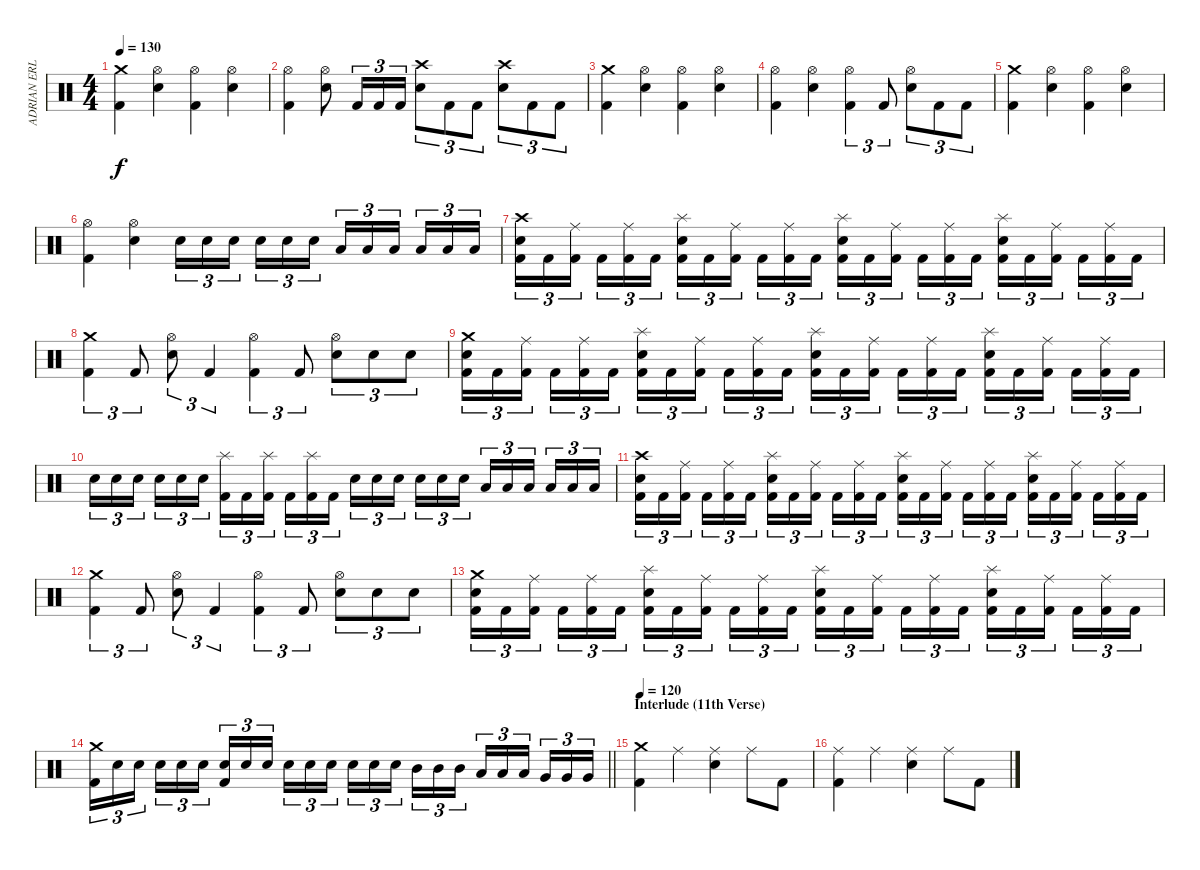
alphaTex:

\track ("ADRIAN ERLANDSSON" "ADRIAN ERL") {instrument percussion}
\staff {score}
\articulation defaults
\ts (4 4)
\tempo 130
\clef neutral
\ks c
("Kick (hit) 2" "Crash medium (hit)").4{dy f} ("Electric Snare (hit)" "Hi-Hat (open)").4 ("Kick (hit) 2" "Hi-Hat (open)").4 ("Electric Snare (hit)" "Hi-Hat (open)").4 |
("Kick (hit) 2" "Hi-Hat (open)").4 ("Electric Snare (hit)" "Hi-Hat (open)").8 "Kick (hit) 2".16{tu (3 2)} "Kick (hit) 2".16{tu (3 2)} "Kick (hit) 2".16{tu (3 2)} ("Electric Snare (hit)" "Crash high (hit)").8{tu (3 2)} "Kick (hit) 2".8{tu (3 2)} "Kick (hit) 2".8{tu (3 2)} ("Electric Snare (hit)" "Crash high (hit)").8{tu (3 2)} "Kick (hit) 2".8{tu (3 2)} "Kick (hit) 2".8{tu (3 2)} |
("Kick (hit) 2" "Crash medium (hit)").4 ("Electric Snare (hit)" "Hi-Hat (open)").4 ("Kick (hit) 2" "Hi-Hat (open)").4 ("Electric Snare (hit)" "Hi-Hat (open)").4 |
("Kick (hit) 2" "Hi-Hat (open)").4 ("Electric Snare (hit)" "Hi-Hat (open)").4 ("Kick (hit) 2" "Hi-Hat (open)").4{tu (3 2)} "Kick (hit) 2".8{tu (3 2)} ("Electric Snare (hit)" "Hi-Hat (open)").8{tu (3 2)} "Kick (hit) 2".8{tu (3 2)} "Kick (hit) 2".8{tu (3 2)} |
("Kick (hit) 2" "Crash medium (hit)").4 ("Electric Snare (hit)" "Hi-Hat (open)").4 ("Kick (hit) 2" "Hi-Hat (open)").4 ("Electric Snare (hit)" "Hi-Hat (open)").4 |
("Kick (hit) 2" "Hi-Hat (open)").4 ("Electric Snare (hit)" "Hi-Hat (open)").4 "Electric Snare (hit)".16{tu (3 2)} "Electric Snare (hit)".16{tu (3 2)} "Electric Snare (hit)".16{tu (3 2) beam splitsecondary} "Electric Snare (hit)".16{tu (3 2)} "Electric Snare (hit)".16{tu (3 2)} "Electric Snare (hit)".16{tu (3 2)} "Low Tom (hit)".16{tu (3 2)} "Low Tom (hit)".16{tu (3 2)} "Low Tom (hit)".16{tu (3 2) beam splitsecondary} "Low Tom (hit)".16{tu (3 2)} "Low Tom (hit)".16{tu (3 2)} "Low Tom (hit)".16{tu (3 2)} |
("Kick (hit) 2" "Electric Snare (hit)" "Crash high (hit)").16{tu (3 2)} "Kick (hit) 2".16{tu (3 2)} ("Kick (hit) 2" "Ride (middle)").16{tu (3 2) beam splitsecondary} "Kick (hit) 2".16{tu (3 2)} ("Kick (hit) 2" "Ride (middle)").16{tu (3 2)} "Kick (hit) 2".16{tu (3 2)} ("Kick (hit) 2" "Electric Snare (hit)" "Splash (hit)").16{tu (3 2)} "Kick (hit) 2".16{tu (3 2)} ("Kick (hit) 2" "Ride (middle)").16{tu (3 2) beam splitsecondary} "Kick (hit) 2".16{tu (3 2)} ("Kick (hit) 2" "Ride (middle)").16{tu (3 2)} "Kick (hit) 2".16{tu (3 2)} ("Kick (hit) 2" "Electric Snare (hit)" "Splash (hit)").16{tu (3 2)} "Kick (hit) 2".16{tu (3 2)} ("Kick (hit) 2" "Ride (middle)").16{tu (3 2) beam splitsecondary} "Kick (hit) 2".16{tu (3 2)} ("Kick (hit) 2" "Ride (middle)").16{tu (3 2)} "Kick (hit) 2".16{tu (3 2)} ("Kick (hit) 2" "Electric Snare (hit)" "Splash (hit)").16{tu (3 2)} "Kick (hit) 2".16{tu (3 2)} ("Kick (hit) 2" "Ride (middle)").16{tu (3 2) beam splitsecondary} "Kick (hit) 2".16{tu (3 2)} ("Kick (hit) 2" "Ride (middle)").16{tu (3 2)} "Kick (hit) 2".16{tu (3 2)} |
("Kick (hit) 2" "Crash medium (hit)").4{tu (3 2)} "Kick (hit) 2".8{tu (3 2)} ("Electric Snare (hit)" "Hi-Hat (open)").8{tu (3 2)} "Kick (hit) 2".4{tu (3 2)} ("Kick (hit) 2" "Hi-Hat (open)").4{tu (3 2)} "Kick (hit) 2".8{tu (3 2)} ("Electric Snare (hit)" "Hi-Hat (open)").8{tu (3 2)} "Electric Snare (hit)".8{tu (3 2)} "Electric Snare (hit)".8{tu (3 2)} |
("Kick (hit) 2" "Electric Snare (hit)" "Crash medium (hit)").16{tu (3 2)} "Kick (hit) 2".16{tu (3 2)} ("Kick (hit) 2" "Ride (middle)").16{tu (3 2) beam splitsecondary} "Kick (hit) 2".16{tu (3 2)} ("Kick (hit) 2" "Ride (middle)").16{tu (3 2)} "Kick (hit) 2".16{tu (3 2)} ("Kick (hit) 2" "Electric Snare (hit)" "Splash (hit)").16{tu (3 2)} "Kick (hit) 2".16{tu (3 2)} ("Kick (hit) 2" "Ride (middle)").16{tu (3 2) beam splitsecondary} "Kick (hit) 2".16{tu (3 2)} ("Kick (hit) 2" "Ride (middle)").16{tu (3 2)} "Kick (hit) 2".16{tu (3 2)} ("Kick (hit) 2" "Electric Snare (hit)" "Splash (hit)").16{tu (3 2)} "Kick (hit) 2".16{tu (3 2)} ("Kick (hit) 2" "Ride (middle)").16{tu (3 2) beam splitsecondary} "Kick (hit) 2".16{tu (3 2)} ("Kick (hit) 2" "Ride (middle)").16{tu (3 2)} "Kick (hit) 2".16{tu (3 2)} ("Kick (hit) 2" "Electric Snare (hit)" "Splash (hit)").16{tu (3 2)} "Kick (hit) 2".16{tu (3 2)} ("Kick (hit) 2" "Ride (middle)").16{tu (3 2) beam splitsecondary} "Kick (hit) 2".16{tu (3 2)} ("Kick (hit) 2" "Ride (middle)").16{tu (3 2)} "Kick (hit) 2".16{tu (3 2)} |
"Electric Snare (hit)".16{tu (3 2)} "Electric Snare (hit)".16{tu (3 2)} "Electric Snare (hit)".16{tu (3 2) beam splitsecondary} "Electric Snare (hit)".16{tu (3 2)} "Electric Snare (hit)".16{tu (3 2)} "Electric Snare (hit)".16{tu (3 2)} ("Kick (hit) 2" "Splash (hit)").16{tu (3 2)} "Kick (hit) 2".16{tu (3 2)} ("Kick (hit) 2" "Splash (hit)").16{tu (3 2) beam splitsecondary} "Kick (hit) 2".16{tu (3 2)} ("Kick (hit) 2" "Splash (hit)").16{tu (3 2)} "Kick (hit) 2".16{tu (3 2)} "Electric Snare (hit)".16{tu (3 2)} "Electric Snare (hit)".16{tu (3 2)} "Electric Snare (hit)".16{tu (3 2) beam splitsecondary} "Electric Snare (hit)".16{tu (3 2)} "Electric Snare (hit)".16{tu (3 2)} "Electric Snare (hit)".16{tu (3 2)} "Low Tom (hit)".16{tu (3 2)} "Low Tom (hit)".16{tu (3 2)} "Low Tom (hit)".16{tu (3 2) beam splitsecondary} "Low Tom (hit)".16{tu (3 2)} "Low Tom (hit)".16{tu (3 2)} "Low Tom (hit)".16{tu (3 2)} |
("Kick (hit) 2" "Electric Snare (hit)" "Crash high (hit)").16{tu (3 2)} "Kick (hit) 2".16{tu (3 2)} ("Kick (hit) 2" "Ride (middle)").16{tu (3 2) beam splitsecondary} "Kick (hit) 2".16{tu (3 2)} ("Kick (hit) 2" "Ride (middle)").16{tu (3 2)} "Kick (hit) 2".16{tu (3 2)} ("Kick (hit) 2" "Electric Snare (hit)" "Splash (hit)").16{tu (3 2)} "Kick (hit) 2".16{tu (3 2)} ("Kick (hit) 2" "Ride (middle)").16{tu (3 2) beam splitsecondary} "Kick (hit) 2".16{tu (3 2)} ("Kick (hit) 2" "Ride (middle)").16{tu (3 2)} "Kick (hit) 2".16{tu (3 2)} ("Kick (hit) 2" "Electric Snare (hit)" "Splash (hit)").16{tu (3 2)} "Kick (hit) 2".16{tu (3 2)} ("Kick (hit) 2" "Ride (middle)").16{tu (3 2) beam splitsecondary} "Kick (hit) 2".16{tu (3 2)} ("Kick (hit) 2" "Ride (middle)").16{tu (3 2)} "Kick (hit) 2".16{tu (3 2)} ("Kick (hit) 2" "Electric Snare (hit)" "Splash (hit)").16{tu (3 2)} "Kick (hit) 2".16{tu (3 2)} ("Kick (hit) 2" "Ride (middle)").16{tu (3 2) beam splitsecondary} "Kick (hit) 2".16{tu (3 2)} ("Kick (hit) 2" "Ride (middle)").16{tu (3 2)} "Kick (hit) 2".16{tu (3 2)} |
("Kick (hit) 2" "Crash medium (hit)").4{tu (3 2)} "Kick (hit) 2".8{tu (3 2)} ("Electric Snare (hit)" "Hi-Hat (open)").8{tu (3 2)} "Kick (hit) 2".4{tu (3 2)} ("Kick (hit) 2" "Hi-Hat (open)").4{tu (3 2)} "Kick (hit) 2".8{tu (3 2)} ("Electric Snare (hit)" "Hi-Hat (open)").8{tu (3 2)} "Electric Snare (hit)".8{tu (3 2)} "Electric Snare (hit)".8{tu (3 2)} |
("Kick (hit) 2" "Electric Snare (hit)" "Crash medium (hit)").16{tu (3 2)} "Kick (hit) 2".16{tu (3 2)} ("Kick (hit) 2" "Ride (middle)").16{tu (3 2) beam splitsecondary} "Kick (hit) 2".16{tu (3 2)} ("Kick (hit) 2" "Ride (middle)").16{tu (3 2)} "Kick (hit) 2".16{tu (3 2)} ("Kick (hit) 2" "Electric Snare (hit)" "Splash (hit)").16{tu (3 2)} "Kick (hit) 2".16{tu (3 2)} ("Kick (hit) 2" "Ride (middle)").16{tu (3 2) beam splitsecondary} "Kick (hit) 2".16{tu (3 2)} ("Kick (hit) 2" "Ride (middle)").16{tu (3 2)} "Kick (hit) 2".16{tu (3 2)} ("Kick (hit) 2" "Electric Snare (hit)" "Splash (hit)").16{tu (3 2)} "Kick (hit) 2".16{tu (3 2)} ("Kick (hit) 2" "Ride (middle)").16{tu (3 2) beam splitsecondary} "Kick (hit) 2".16{tu (3 2)} ("Kick (hit) 2" "Ride (middle)").16{tu (3 2)} "Kick (hit) 2".16{tu (3 2)} ("Kick (hit) 2" "Electric Snare (hit)" "Splash (hit)").16{tu (3 2)} "Kick (hit) 2".16{tu (3 2)} ("Kick (hit) 2" "Ride (middle)").16{tu (3 2) beam splitsecondary} "Kick (hit) 2".16{tu (3 2)} ("Kick (hit) 2" "Ride (middle)").16{tu (3 2)} "Kick (hit) 2".16{tu (3 2)} |
\barLineRight lightlight
("Kick (hit) 2" "Crash medium (hit)").16{tu (3 2)} "Electric Snare (hit)".16{tu (3 2)} "Electric Snare (hit)".16{tu (3 2) beam splitsecondary} "Electric Snare (hit)".16{tu (3 2)} "Electric Snare (hit)".16{tu (3 2)} "Electric Snare (hit)".16{tu (3 2)} ("Kick (hit) 2" "Electric Snare (hit)").16{tu (3 2)} "Electric Snare (hit)".16{tu (3 2)} "Electric Snare (hit)".16{tu (3 2) beam splitsecondary} "Electric Snare (hit)".16{tu (3 2)} "Electric Snare (hit)".16{tu (3 2)} "Electric Snare (hit)".16{tu (3 2)} "Electric Snare (hit)".16{tu (3 2)} "Electric Snare (hit)".16{tu (3 2)} "Electric Snare (hit)".16{tu (3 2) beam splitsecondary} "Mid Tom (hit)".16{tu (3 2)} "Mid Tom (hit)".16{tu (3 2)} "Mid Tom (hit)".16{tu (3 2)} "Low Tom (hit)".16{tu (3 2)} "Low Tom (hit)".16{tu (3 2)} "Low Tom (hit)".16{tu (3 2) beam splitsecondary} "Very Low Tom (hit)".16{tu (3 2)} "Very Low Tom (hit)".16{tu (3 2)} "Very Low Tom (hit)".16{tu (3 2)} |
\section ("" "Interlude (11th Verse)")
\tempo 120
("Kick (hit) 2" "Crash medium (hit)").4 "Ride (middle)".4 ("Snare (hit) 2" "Ride (middle)").4 "Ride (middle)".8 "Kick (hit) 2".8 |
("Kick (hit) 2" "Ride (middle)").4 "Ride (middle)".4 ("Snare (hit) 2" "Ride (middle)").4 "Ride (middle)".8 "Kick (hit) 2".8
